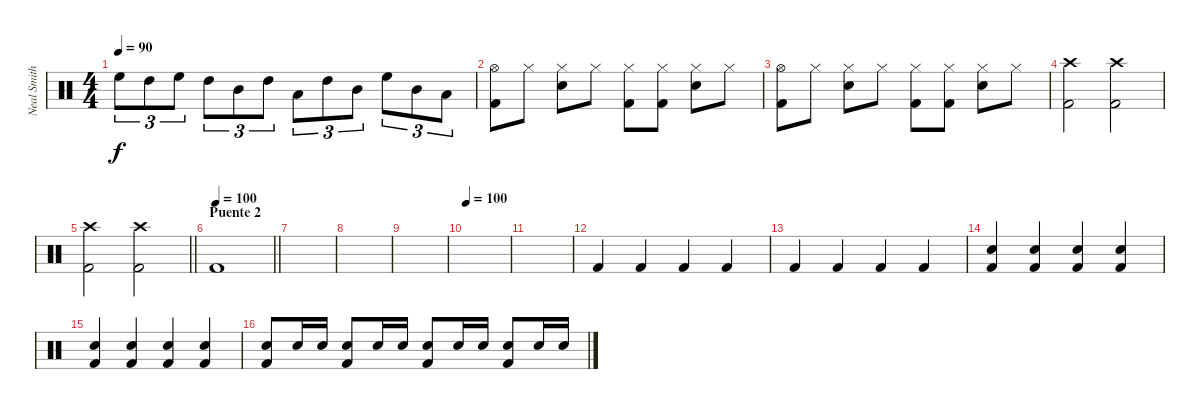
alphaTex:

\track ("Neal Smith" "Neal Smith") {instrument percussion}
\staff {score}
\articulation defaults
\ts (4 4)
\tempo 90
\clef neutral
\ks c "High Floor Tom (hit)".8{tu (3 2) dy f} "High Tom (hit)".8{tu (3 2)} "High Floor Tom (hit)".8{tu (3 2)} "High Tom (hit)".8{tu (3 2)} "Mid Tom (hit)".8{tu (3 2)} "High Tom (hit)".8{tu (3 2)} "Low Tom (hit)".8{tu (3 2)} "High Tom (hit)".8{tu (3 2)} "Mid Tom (hit)".8{tu (3 2)} "High Floor Tom (hit)".8{tu (3 2)} "Mid Tom (hit)".8{tu (3 2)} "Low Tom (hit)".8{tu (3 2)}
|
("Hi-Hat (open)" "Kick (hit) 2").8 "Hi-Hat (closed)".8 ("Hi-Hat (closed)" "Snare (hit) 2").8 "Hi-Hat (closed)".8 ("Hi-Hat (closed)" "Kick (hit) 2").8 ("Hi-Hat (closed)" "Kick (hit) 2").8 ("Hi-Hat (closed)" "Snare (hit) 2").8 "Hi-Hat (closed)".8 |
("Hi-Hat (open)" "Kick (hit) 2").8 "Hi-Hat (closed)".8 ("Hi-Hat (closed)" "Snare (hit) 2").8 "Hi-Hat (closed)".8 ("Hi-Hat (closed)" "Kick (hit) 2").8 ("Hi-Hat (closed)" "Kick (hit) 2").8 ("Hi-Hat (closed)" "Snare (hit) 2").8 "Hi-Hat (closed)".8 |
("Crash high (hit)" "Kick (hit) 2").2 ("Crash high (hit)" "Kick (hit) 2").2 |
\barLineRight lightlight
("Crash high (hit)" "Kick (hit) 2").2 ("Crash high (hit)" "Kick (hit) 2").2 |
\section ("" "Puente 2")
\tempo 100
\barLineRight lightlight "Kick (hit) 2".1
|
|
|
|
\tempo 100
|
|
"Kick (hit) 2".4 "Kick (hit) 2".4 "Kick (hit) 2".4 "Kick (hit) 2".4 |
"Kick (hit) 2".4 "Kick (hit) 2".4 "Kick (hit) 2".4 "Kick (hit) 2".4 |
("Snare (hit) 2" "Kick (hit) 2").4 ("Snare (hit) 2" "Kick (hit) 2").4 ("Snare (hit) 2" "Kick (hit) 2").4 ("Snare (hit) 2" "Kick (hit) 2").4 |
("Snare (hit) 2" "Kick (hit) 2").4 ("Snare (hit) 2" "Kick (hit) 2").4 ("Snare (hit) 2" "Kick (hit) 2").4 ("Snare (hit) 2" "Kick (hit) 2").4 |
("Snare (hit) 2" "Kick (hit) 2").8 "Snare (hit) 2".16 "Snare (hit) 2".16 ("Snare (hit) 2" "Kick (hit) 2").8 "Snare (hit) 2".16 "Snare (hit) 2".16 ("Snare (hit) 2" "Kick (hit) 2").8 "Snare (hit) 2".16 "Snare (hit) 2".16 ("Snare (hit) 2" "Kick (hit) 2").8 "Snare (hit) 2".16 "Snare (hit) 2".16
